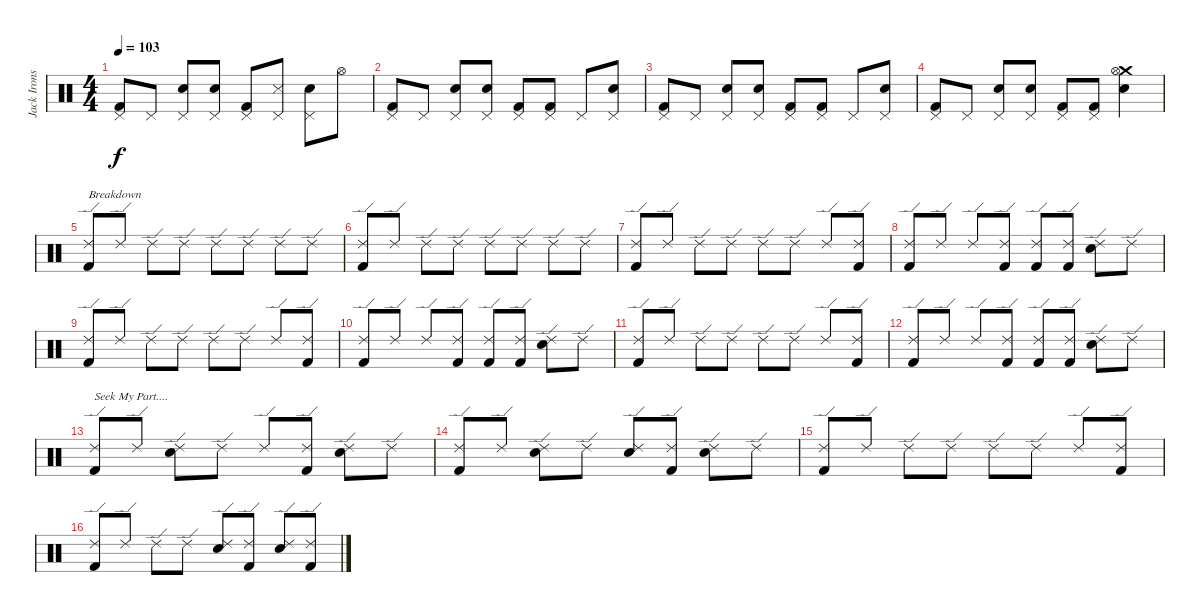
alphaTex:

\track ("Jack Irons" "Jack Irons") {instrument percussion}
\staff {score}
\articulation defaults
\ts (4 4)
\tempo 103
\clef neutral
\ks c
("Pedal Hi-Hat (hit)" "Kick (hit) 2").8{dy f} "Pedal Hi-Hat (hit)".8 ("Pedal Hi-Hat (hit)" "Snare (hit) 2").8 ("Pedal Hi-Hat (hit)" "Snare (hit) 2").8 ("Pedal Hi-Hat (hit)" "Kick (hit) 2").8 ("Pedal Hi-Hat (hit)" "Snare (side stick) 3").8 ("Pedal Hi-Hat (hit)" "Snare (hit) 2").8 "Hi-Hat (open)".8 |
("Pedal Hi-Hat (hit)" "Kick (hit) 2").8 "Pedal Hi-Hat (hit)".8 ("Pedal Hi-Hat (hit)" "Snare (hit) 2").8 ("Pedal Hi-Hat (hit)" "Snare (hit) 2").8 ("Pedal Hi-Hat (hit)" "Kick (hit) 2").8 ("Pedal Hi-Hat (hit)" "Kick (hit) 2").8 "Pedal Hi-Hat (hit)".8 ("Pedal Hi-Hat (hit)" "Snare (hit) 2").8 |
("Pedal Hi-Hat (hit)" "Kick (hit) 2").8 "Pedal Hi-Hat (hit)".8 ("Pedal Hi-Hat (hit)" "Snare (hit) 2").8 ("Pedal Hi-Hat (hit)" "Snare (hit) 2").8 ("Pedal Hi-Hat (hit)" "Kick (hit) 2").8 ("Pedal Hi-Hat (hit)" "Kick (hit) 2").8 "Pedal Hi-Hat (hit)".8 ("Pedal Hi-Hat (hit)" "Snare (hit) 2").8 |
("Pedal Hi-Hat (hit)" "Kick (hit) 2").8 "Pedal Hi-Hat (hit)".8 ("Pedal Hi-Hat (hit)" "Snare (hit) 2").8 ("Pedal Hi-Hat (hit)" "Snare (hit) 2").8 ("Pedal Hi-Hat (hit)" "Kick (hit) 2").8 ("Pedal Hi-Hat (hit)" "Kick (hit) 2").8 ("Crash medium (hit)" "Hi-Hat (open)" "Snare (hit) 2").4 |
("Ride (edge) 2" "Kick (hit) 2").8{txt "Breakdown"} "Ride (edge) 2".8 "Ride (edge) 2".8 "Ride (edge) 2".8 "Ride (edge) 2".8 "Ride (edge) 2".8 "Ride (edge) 2".8 "Ride (edge) 2".8 |
("Ride (edge) 2" "Kick (hit) 2").8 "Ride (edge) 2".8 "Ride (edge) 2".8 "Ride (edge) 2".8 "Ride (edge) 2".8 "Ride (edge) 2".8 "Ride (edge) 2".8 "Ride (edge) 2".8 |
("Ride (edge) 2" "Kick (hit) 2").8 "Ride (edge) 2".8 "Ride (edge) 2".8 "Ride (edge) 2".8 "Ride (edge) 2".8 "Ride (edge) 2".8 "Ride (edge) 2".8 ("Ride (edge) 2" "Kick (hit) 2").8 |
("Ride (edge) 2" "Kick (hit) 2").8 "Ride (edge) 2".8 "Ride (edge) 2".8 ("Ride (edge) 2" "Kick (hit) 2").8 ("Ride (edge) 2" "Kick (hit) 2").8 ("Ride (edge) 2" "Kick (hit) 2").8 ("Ride (edge) 2" "Snare (hit) 2").8 "Ride (edge) 2".8 |
("Ride (edge) 2" "Kick (hit) 2").8 "Ride (edge) 2".8 "Ride (edge) 2".8 "Ride (edge) 2".8 "Ride (edge) 2".8 "Ride (edge) 2".8 "Ride (edge) 2".8 ("Ride (edge) 2" "Kick (hit) 2").8 |
("Ride (edge) 2" "Kick (hit) 2").8 "Ride (edge) 2".8 "Ride (edge) 2".8 ("Ride (edge) 2" "Kick (hit) 2").8 ("Ride (edge) 2" "Kick (hit) 2").8 ("Ride (edge) 2" "Kick (hit) 2").8 ("Ride (edge) 2" "Snare (hit) 2").8 "Ride (edge) 2".8 |
("Ride (edge) 2" "Kick (hit) 2").8 "Ride (edge) 2".8 "Ride (edge) 2".8 "Ride (edge) 2".8 "Ride (edge) 2".8 "Ride (edge) 2".8 "Ride (edge) 2".8 ("Ride (edge) 2" "Kick (hit) 2").8 |
("Ride (edge) 2" "Kick (hit) 2").8 "Ride (edge) 2".8 "Ride (edge) 2".8 ("Ride (edge) 2" "Kick (hit) 2").8 ("Ride (edge) 2" "Kick (hit) 2").8 ("Ride (edge) 2" "Kick (hit) 2").8 ("Ride (edge) 2" "Snare (hit) 2").8 "Ride (edge) 2".8 |
("Ride (edge) 2" "Kick (hit) 2").8{txt "Seek My Part...."} "Ride (edge) 2".8 ("Ride (edge) 2" "Snare (hit) 2").8 "Ride (edge) 2".8 "Ride (edge) 2".8 ("Ride (edge) 2" "Kick (hit) 2").8 ("Ride (edge) 2" "Snare (hit) 2").8 "Ride (edge) 2".8 |
("Ride (edge) 2" "Kick (hit) 2").8 "Ride (edge) 2".8 ("Ride (edge) 2" "Snare (hit) 2").8 "Ride (edge) 2".8 ("Ride (edge) 2" "Snare (hit) 2").8 ("Ride (edge) 2" "Kick (hit) 2").8 ("Ride (edge) 2" "Snare (hit) 2").8 "Ride (edge) 2".8 |
("Ride (edge) 2" "Kick (hit) 2").8 "Ride (edge) 2".8 "Ride (edge) 2".8 "Ride (edge) 2".8 "Ride (edge) 2".8 "Ride (edge) 2".8 "Ride (edge) 2".8 ("Ride (edge) 2" "Kick (hit) 2").8 |
("Ride (edge) 2" "Kick (hit) 2").8 "Ride (edge) 2".8 "Ride (edge) 2".8 "Ride (edge) 2".8 ("Ride (edge) 2" "Snare (hit) 2").8 ("Ride (edge) 2" "Kick (hit) 2").8 ("Ride (edge) 2" "Snare (hit) 2").8 ("Ride (edge) 2" "Kick (hit) 2").8
